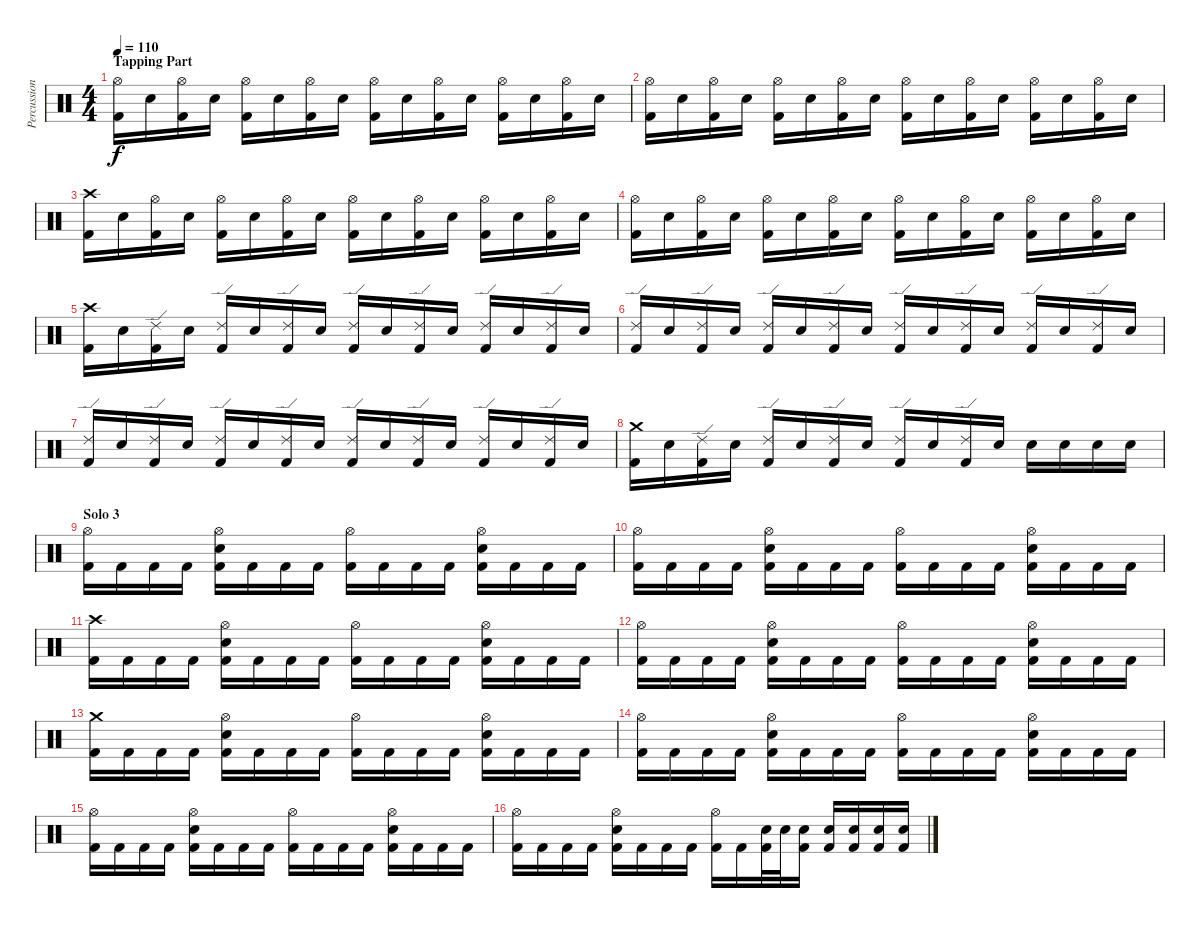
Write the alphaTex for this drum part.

\track ("Percussions" "Percussion") {instrument percussion}
\staff {score}
\articulation defaults
\ts (4 4)
\section ("" "Tapping Part")
\tempo 110
\clef neutral
\ks c
("Hi-Hat (open)" "Kick (hit) 2").16{dy f} "Electric Snare (hit)".16 ("Hi-Hat (open)" "Kick (hit) 2").16 "Electric Snare (hit)".16 ("Hi-Hat (open)" "Kick (hit) 2").16 "Electric Snare (hit)".16 ("Hi-Hat (open)" "Kick (hit) 2").16 "Electric Snare (hit)".16 ("Hi-Hat (open)" "Kick (hit) 2").16 "Electric Snare (hit)".16 ("Hi-Hat (open)" "Kick (hit) 2").16 "Electric Snare (hit)".16 ("Hi-Hat (open)" "Kick (hit) 2").16 "Electric Snare (hit)".16 ("Hi-Hat (open)" "Kick (hit) 2").16 "Electric Snare (hit)".16 |
("Hi-Hat (open)" "Kick (hit) 2").16 "Electric Snare (hit)".16 ("Hi-Hat (open)" "Kick (hit) 2").16 "Electric Snare (hit)".16 ("Hi-Hat (open)" "Kick (hit) 2").16 "Electric Snare (hit)".16 ("Hi-Hat (open)" "Kick (hit) 2").16 "Electric Snare (hit)".16 ("Hi-Hat (open)" "Kick (hit) 2").16 "Electric Snare (hit)".16 ("Hi-Hat (open)" "Kick (hit) 2").16 "Electric Snare (hit)".16 ("Hi-Hat (open)" "Kick (hit) 2").16 "Electric Snare (hit)".16 ("Hi-Hat (open)" "Kick (hit) 2").16 "Electric Snare (hit)".16 |
("Crash high (hit)" "Kick (hit) 2").16 "Electric Snare (hit)".16 ("Hi-Hat (open)" "Kick (hit) 2").16 "Electric Snare (hit)".16 ("Hi-Hat (open)" "Kick (hit) 2").16 "Electric Snare (hit)".16 ("Hi-Hat (open)" "Kick (hit) 2").16 "Electric Snare (hit)".16 ("Hi-Hat (open)" "Kick (hit) 2").16 "Electric Snare (hit)".16 ("Hi-Hat (open)" "Kick (hit) 2").16 "Electric Snare (hit)".16 ("Hi-Hat (open)" "Kick (hit) 2").16 "Electric Snare (hit)".16 ("Hi-Hat (open)" "Kick (hit) 2").16 "Electric Snare (hit)".16 |
("Hi-Hat (open)" "Kick (hit) 2").16 "Electric Snare (hit)".16 ("Hi-Hat (open)" "Kick (hit) 2").16 "Electric Snare (hit)".16 ("Hi-Hat (open)" "Kick (hit) 2").16 "Electric Snare (hit)".16 ("Hi-Hat (open)" "Kick (hit) 2").16 "Electric Snare (hit)".16 ("Hi-Hat (open)" "Kick (hit) 2").16 "Electric Snare (hit)".16 ("Hi-Hat (open)" "Kick (hit) 2").16 "Electric Snare (hit)".16 ("Hi-Hat (open)" "Kick (hit) 2").16 "Electric Snare (hit)".16 ("Hi-Hat (open)" "Kick (hit) 2").16 "Electric Snare (hit)".16 |
("Crash high (hit)" "Kick (hit) 2").16 "Electric Snare (hit)".16 ("Ride (edge) 2" "Kick (hit) 2").16 "Electric Snare (hit)".16 ("Ride (edge) 2" "Kick (hit) 2").16 "Electric Snare (hit)".16 ("Ride (edge) 2" "Kick (hit) 2").16 "Electric Snare (hit)".16 ("Ride (edge) 2" "Kick (hit) 2").16 "Electric Snare (hit)".16 ("Ride (edge) 2" "Kick (hit) 2").16 "Electric Snare (hit)".16 ("Ride (edge) 2" "Kick (hit) 2").16 "Electric Snare (hit)".16 ("Ride (edge) 2" "Kick (hit) 2").16 "Electric Snare (hit)".16 |
("Ride (edge) 2" "Kick (hit) 2").16 "Electric Snare (hit)".16 ("Ride (edge) 2" "Kick (hit) 2").16 "Electric Snare (hit)".16 ("Ride (edge) 2" "Kick (hit) 2").16 "Electric Snare (hit)".16 ("Ride (edge) 2" "Kick (hit) 2").16 "Electric Snare (hit)".16 ("Ride (edge) 2" "Kick (hit) 2").16 "Electric Snare (hit)".16 ("Ride (edge) 2" "Kick (hit) 2").16 "Electric Snare (hit)".16 ("Ride (edge) 2" "Kick (hit) 2").16 "Electric Snare (hit)".16 ("Ride (edge) 2" "Kick (hit) 2").16 "Electric Snare (hit)".16 |
("Ride (edge) 2" "Kick (hit) 2").16 "Electric Snare (hit)".16 ("Ride (edge) 2" "Kick (hit) 2").16 "Electric Snare (hit)".16 ("Ride (edge) 2" "Kick (hit) 2").16 "Electric Snare (hit)".16 ("Ride (edge) 2" "Kick (hit) 2").16 "Electric Snare (hit)".16 ("Ride (edge) 2" "Kick (hit) 2").16 "Electric Snare (hit)".16 ("Ride (edge) 2" "Kick (hit) 2").16 "Electric Snare (hit)".16 ("Ride (edge) 2" "Kick (hit) 2").16 "Electric Snare (hit)".16 ("Ride (edge) 2" "Kick (hit) 2").16 "Electric Snare (hit)".16 |
("Crash medium (hit)" "Kick (hit) 2").16 "Electric Snare (hit)".16 ("Ride (edge) 2" "Kick (hit) 2").16 "Electric Snare (hit)".16 ("Ride (edge) 2" "Kick (hit) 2").16 "Electric Snare (hit)".16 ("Ride (edge) 2" "Kick (hit) 2").16 "Electric Snare (hit)".16 ("Ride (edge) 2" "Kick (hit) 2").16 "Electric Snare (hit)".16 ("Ride (edge) 2" "Kick (hit) 2").16 "Electric Snare (hit)".16 "Electric Snare (hit)".16 "Electric Snare (hit)".16 "Electric Snare (hit)".16 "Electric Snare (hit)".16 |
\section ("" "Solo 3")
("Hi-Hat (open)" "Kick (hit) 2").16 "Kick (hit) 2".16 "Kick (hit) 2".16 "Kick (hit) 2".16 ("Hi-Hat (open)" "Electric Snare (hit)" "Kick (hit) 2").16 "Kick (hit) 2".16 "Kick (hit) 2".16 "Kick (hit) 2".16 ("Hi-Hat (open)" "Kick (hit) 2").16 "Kick (hit) 2".16 "Kick (hit) 2".16 "Kick (hit) 2".16 ("Hi-Hat (open)" "Electric Snare (hit)" "Kick (hit) 2").16 "Kick (hit) 2".16 "Kick (hit) 2".16 "Kick (hit) 2".16 |
("Hi-Hat (open)" "Kick (hit) 2").16 "Kick (hit) 2".16 "Kick (hit) 2".16 "Kick (hit) 2".16 ("Hi-Hat (open)" "Electric Snare (hit)" "Kick (hit) 2").16 "Kick (hit) 2".16 "Kick (hit) 2".16 "Kick (hit) 2".16 ("Hi-Hat (open)" "Kick (hit) 2").16 "Kick (hit) 2".16 "Kick (hit) 2".16 "Kick (hit) 2".16 ("Hi-Hat (open)" "Electric Snare (hit)" "Kick (hit) 2").16 "Kick (hit) 2".16 "Kick (hit) 2".16 "Kick (hit) 2".16 |
("Crash high (hit)" "Kick (hit) 2").16 "Kick (hit) 2".16 "Kick (hit) 2".16 "Kick (hit) 2".16 ("Hi-Hat (open)" "Electric Snare (hit)" "Kick (hit) 2").16 "Kick (hit) 2".16 "Kick (hit) 2".16 "Kick (hit) 2".16 ("Hi-Hat (open)" "Kick (hit) 2").16 "Kick (hit) 2".16 "Kick (hit) 2".16 "Kick (hit) 2".16 ("Hi-Hat (open)" "Electric Snare (hit)" "Kick (hit) 2").16 "Kick (hit) 2".16 "Kick (hit) 2".16 "Kick (hit) 2".16 |
("Hi-Hat (open)" "Kick (hit) 2").16 "Kick (hit) 2".16 "Kick (hit) 2".16 "Kick (hit) 2".16 ("Hi-Hat (open)" "Electric Snare (hit)" "Kick (hit) 2").16 "Kick (hit) 2".16 "Kick (hit) 2".16 "Kick (hit) 2".16 ("Hi-Hat (open)" "Kick (hit) 2").16 "Kick (hit) 2".16 "Kick (hit) 2".16 "Kick (hit) 2".16 ("Hi-Hat (open)" "Electric Snare (hit)" "Kick (hit) 2").16 "Kick (hit) 2".16 "Kick (hit) 2".16 "Kick (hit) 2".16 |
("Crash medium (hit)" "Kick (hit) 2").16 "Kick (hit) 2".16 "Kick (hit) 2".16 "Kick (hit) 2".16 ("Hi-Hat (open)" "Electric Snare (hit)" "Kick (hit) 2").16 "Kick (hit) 2".16 "Kick (hit) 2".16 "Kick (hit) 2".16 ("Hi-Hat (open)" "Kick (hit) 2").16 "Kick (hit) 2".16 "Kick (hit) 2".16 "Kick (hit) 2".16 ("Hi-Hat (open)" "Electric Snare (hit)" "Kick (hit) 2").16 "Kick (hit) 2".16 "Kick (hit) 2".16 "Kick (hit) 2".16 |
("Hi-Hat (open)" "Kick (hit) 2").16 "Kick (hit) 2".16 "Kick (hit) 2".16 "Kick (hit) 2".16 ("Hi-Hat (open)" "Electric Snare (hit)" "Kick (hit) 2").16 "Kick (hit) 2".16 "Kick (hit) 2".16 "Kick (hit) 2".16 ("Hi-Hat (open)" "Kick (hit) 2").16 "Kick (hit) 2".16 "Kick (hit) 2".16 "Kick (hit) 2".16 ("Hi-Hat (open)" "Electric Snare (hit)" "Kick (hit) 2").16 "Kick (hit) 2".16 "Kick (hit) 2".16 "Kick (hit) 2".16 |
("Hi-Hat (open)" "Kick (hit) 2").16 "Kick (hit) 2".16 "Kick (hit) 2".16 "Kick (hit) 2".16 ("Hi-Hat (open)" "Electric Snare (hit)" "Kick (hit) 2").16 "Kick (hit) 2".16 "Kick (hit) 2".16 "Kick (hit) 2".16 ("Hi-Hat (open)" "Kick (hit) 2").16 "Kick (hit) 2".16 "Kick (hit) 2".16 "Kick (hit) 2".16 ("Hi-Hat (open)" "Electric Snare (hit)" "Kick (hit) 2").16 "Kick (hit) 2".16 "Kick (hit) 2".16 "Kick (hit) 2".16 |
("Hi-Hat (open)" "Kick (hit) 2").16 "Kick (hit) 2".16 "Kick (hit) 2".16 "Kick (hit) 2".16 ("Hi-Hat (open)" "Electric Snare (hit)" "Kick (hit) 2").16 "Kick (hit) 2".16 "Kick (hit) 2".16 "Kick (hit) 2".16 ("Hi-Hat (open)" "Kick (hit) 2").16 "Kick (hit) 2".16 ("Electric Snare (hit)" "Kick (hit) 2").32 "Electric Snare (hit)".32 ("Electric Snare (hit)" "Kick (hit) 2").16 ("Electric Snare (hit)" "Kick (hit) 2").16 ("Electric Snare (hit)" "Kick (hit) 2").16 ("Electric Snare (hit)" "Kick (hit) 2").16 ("Electric Snare (hit)" "Kick (hit) 2").16
